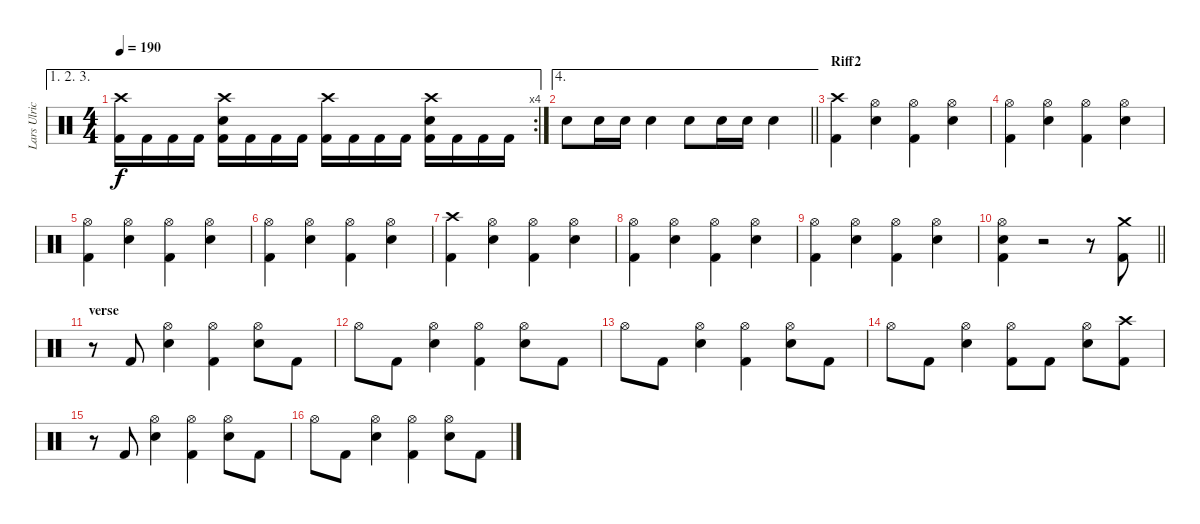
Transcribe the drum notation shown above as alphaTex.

\track ("Lars Ulrich" "Lars Ulric") {instrument percussion}
\staff {score}
\articulation defaults
\ae (1 2 3)
\rc 4
\ts (4 4)
\tempo 190
\clef neutral
\ks c
("Crash high (hit)" "Kick (hit) 2").16{dy f} "Kick (hit) 2".16 "Kick (hit) 2".16 "Kick (hit) 2".16 ("Crash high (hit)" "Snare (hit) 2" "Kick (hit) 2").16 "Kick (hit) 2".16 "Kick (hit) 2".16 "Kick (hit) 2".16 ("Crash high (hit)" "Kick (hit) 2").16 "Kick (hit) 2".16 "Kick (hit) 2".16 "Kick (hit) 2".16 ("Crash high (hit)" "Snare (hit) 2" "Kick (hit) 2").16 "Kick (hit) 2".16 "Kick (hit) 2".16 "Kick (hit) 2".16 |
\ae 4
\barLineRight lightlight "Snare (hit) 2".8 "Snare (hit) 2".16 "Snare (hit) 2".16 "Snare (hit) 2".4 "Snare (hit) 2".8 "Snare (hit) 2".16 "Snare (hit) 2".16 "Snare (hit) 2".4
|
\section ("" "Riff2")
("Crash high (hit)" "Kick (hit) 2").4 ("Hi-Hat (open)" "Snare (hit) 2").4 ("Hi-Hat (open)" "Kick (hit) 2").4 ("Hi-Hat (open)" "Snare (hit) 2").4 |
("Hi-Hat (open)" "Kick (hit) 2").4 ("Hi-Hat (open)" "Snare (hit) 2").4 ("Hi-Hat (open)" "Kick (hit) 2").4 ("Hi-Hat (open)" "Snare (hit) 2").4 |
("Hi-Hat (open)" "Kick (hit) 2").4 ("Hi-Hat (open)" "Snare (hit) 2").4 ("Hi-Hat (open)" "Kick (hit) 2").4 ("Hi-Hat (open)" "Snare (hit) 2").4 |
("Hi-Hat (open)" "Kick (hit) 2").4 ("Hi-Hat (open)" "Snare (hit) 2").4 ("Hi-Hat (open)" "Kick (hit) 2").4 ("Hi-Hat (open)" "Snare (hit) 2").4 |
("Crash high (hit)" "Kick (hit) 2").4 ("Hi-Hat (open)" "Snare (hit) 2").4 ("Hi-Hat (open)" "Kick (hit) 2").4 ("Hi-Hat (open)" "Snare (hit) 2").4 |
("Hi-Hat (open)" "Kick (hit) 2").4 ("Hi-Hat (open)" "Snare (hit) 2").4 ("Hi-Hat (open)" "Kick (hit) 2").4 ("Hi-Hat (open)" "Snare (hit) 2").4 |
("Hi-Hat (open)" "Kick (hit) 2").4 ("Hi-Hat (open)" "Snare (hit) 2").4 ("Hi-Hat (open)" "Kick (hit) 2").4 ("Hi-Hat (open)" "Snare (hit) 2").4 |
\barLineRight lightlight
("Hi-Hat (open)" "Snare (hit) 2" "Kick (hit) 2").4 r.2 r.8 ("Crash medium (hit)" "Kick (hit) 2").8 |
\section ("" "verse")
r.8 "Kick (hit) 2".8 ("Hi-Hat (open)" "Snare (hit) 2").4 ("Hi-Hat (open)" "Kick (hit) 2").4 ("Hi-Hat (open)" "Snare (hit) 2").8 "Kick (hit) 2".8 |
"Hi-Hat (open)".8 "Kick (hit) 2".8 ("Hi-Hat (open)" "Snare (hit) 2").4 ("Hi-Hat (open)" "Kick (hit) 2").4 ("Hi-Hat (open)" "Snare (hit) 2").8 "Kick (hit) 2".8 |
"Hi-Hat (open)".8 "Kick (hit) 2".8 ("Hi-Hat (open)" "Snare (hit) 2").4 ("Hi-Hat (open)" "Kick (hit) 2").4 ("Hi-Hat (open)" "Snare (hit) 2").8 "Kick (hit) 2".8 |
"Hi-Hat (open)".8 "Kick (hit) 2".8 ("Hi-Hat (open)" "Snare (hit) 2").4 ("Hi-Hat (open)" "Kick (hit) 2").8 "Kick (hit) 2".8 ("Hi-Hat (open)" "Snare (hit) 2").8 ("Crash high (hit)" "Kick (hit) 2").8 |
r.8 "Kick (hit) 2".8 ("Hi-Hat (open)" "Snare (hit) 2").4 ("Hi-Hat (open)" "Kick (hit) 2").4 ("Hi-Hat (open)" "Snare (hit) 2").8 "Kick (hit) 2".8 |
"Hi-Hat (open)".8 "Kick (hit) 2".8 ("Hi-Hat (open)" "Snare (hit) 2").4 ("Hi-Hat (open)" "Kick (hit) 2").4 ("Hi-Hat (open)" "Snare (hit) 2").8 "Kick (hit) 2".8
